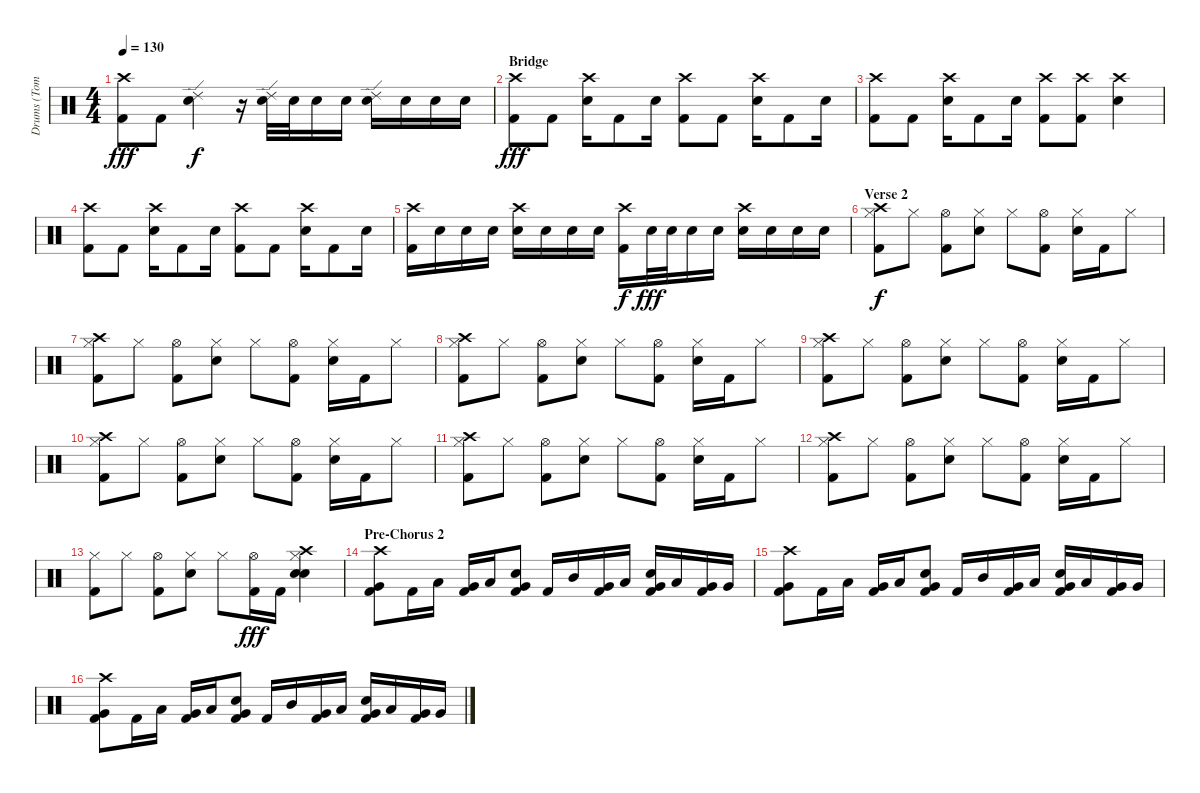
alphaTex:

\track ("Drums (Tommy Decker)" "Drums (Tom") {instrument percussion}
\staff {score}
\articulation defaults
\ts (4 4)
\tempo 130
\clef neutral
\ks c
("Crash high (hit)" "Kick (hit) 2").8{dy fff} "Kick (hit) 2".8 ("Ride (edge) 2" "Electric Snare (hit)").4{dy f} r.16 ("Ride (edge) 2" "Electric Snare (hit)").32 "Electric Snare (hit)".32 "Electric Snare (hit)".16 "Electric Snare (hit)".16 ("Ride (edge) 2" "Electric Snare (hit)").16 "Electric Snare (hit)".16 "Electric Snare (hit)".16 "Electric Snare (hit)".16 |
\section ("" "Bridge")
("Crash high (hit)" "Kick (hit) 2").8{dy fff} "Kick (hit) 2".8 ("Crash high (hit)" "Electric Snare (hit)").16 "Kick (hit) 2".8 "Electric Snare (hit)".16 ("Crash high (hit)" "Kick (hit) 2").8 "Kick (hit) 2".8 ("Crash high (hit)" "Electric Snare (hit)").16 "Kick (hit) 2".8 "Electric Snare (hit)".16 |
("Crash high (hit)" "Kick (hit) 2").8 "Kick (hit) 2".8 ("Crash high (hit)" "Electric Snare (hit)").16 "Kick (hit) 2".8 "Electric Snare (hit)".16 ("Crash high (hit)" "Kick (hit) 2").8 ("Crash high (hit)" "Kick (hit) 2").8 ("Crash high (hit)" "Electric Snare (hit)").4 |
("Crash high (hit)" "Kick (hit) 2").8 "Kick (hit) 2".8 ("Crash high (hit)" "Electric Snare (hit)").16 "Kick (hit) 2".8 "Electric Snare (hit)".16 ("Crash high (hit)" "Kick (hit) 2").8 "Kick (hit) 2".8 ("Crash high (hit)" "Electric Snare (hit)").16 "Kick (hit) 2".8 "Electric Snare (hit)".16 |
("Crash high (hit)" "Kick (hit) 2").16 "Electric Snare (hit)".16 "Electric Snare (hit)".16 "Electric Snare (hit)".16 ("Crash high (hit)" "Electric Snare (hit)").16 "Electric Snare (hit)".16 "Electric Snare (hit)".16 "Electric Snare (hit)".16 ("Crash high (hit)" "Kick (hit) 2").16{dy f} "Electric Snare (hit)".32{dy fff} "Electric Snare (hit)".32 "Electric Snare (hit)".16 "Electric Snare (hit)".16 ("Crash high (hit)" "Electric Snare (hit)").16 "Electric Snare (hit)".16 "Electric Snare (hit)".16 "Electric Snare (hit)".16 |
\section ("" "Verse 2")
("Hi-Hat (closed)" "Crash high (hit)" "Kick (hit) 2").8{dy f} "Hi-Hat (closed)".8 ("Hi-Hat (open)" "Kick (hit) 2").8 ("Hi-Hat (closed)" "Electric Snare (hit)").8 "Hi-Hat (closed)".8 ("Hi-Hat (open)" "Kick (hit) 2").8 ("Hi-Hat (closed)" "Electric Snare (hit)").16 "Kick (hit) 2".16 "Hi-Hat (closed)".8 |
("Hi-Hat (closed)" "Crash high (hit)" "Kick (hit) 2").8 "Hi-Hat (closed)".8 ("Hi-Hat (open)" "Kick (hit) 2").8 ("Hi-Hat (closed)" "Electric Snare (hit)").8 "Hi-Hat (closed)".8 ("Hi-Hat (open)" "Kick (hit) 2").8 ("Hi-Hat (closed)" "Electric Snare (hit)").16 "Kick (hit) 2".16 "Hi-Hat (closed)".8 |
("Hi-Hat (closed)" "Crash high (hit)" "Kick (hit) 2").8 "Hi-Hat (closed)".8 ("Hi-Hat (open)" "Kick (hit) 2").8 ("Hi-Hat (closed)" "Electric Snare (hit)").8 "Hi-Hat (closed)".8 ("Hi-Hat (open)" "Kick (hit) 2").8 ("Hi-Hat (closed)" "Electric Snare (hit)").16 "Kick (hit) 2".16 "Hi-Hat (closed)".8 |
("Hi-Hat (closed)" "Crash high (hit)" "Kick (hit) 2").8 "Hi-Hat (closed)".8 ("Hi-Hat (open)" "Kick (hit) 2").8 ("Hi-Hat (closed)" "Electric Snare (hit)").8 "Hi-Hat (closed)".8 ("Hi-Hat (open)" "Kick (hit) 2").8 ("Hi-Hat (closed)" "Electric Snare (hit)").16 "Kick (hit) 2".16 "Hi-Hat (closed)".8 |
("Hi-Hat (closed)" "Crash high (hit)" "Kick (hit) 2").8 "Hi-Hat (closed)".8 ("Hi-Hat (open)" "Kick (hit) 2").8 ("Hi-Hat (closed)" "Electric Snare (hit)").8 "Hi-Hat (closed)".8 ("Hi-Hat (open)" "Kick (hit) 2").8 ("Hi-Hat (closed)" "Electric Snare (hit)").16 "Kick (hit) 2".16 "Hi-Hat (closed)".8 |
("Hi-Hat (closed)" "Crash high (hit)" "Kick (hit) 2").8 "Hi-Hat (closed)".8 ("Hi-Hat (open)" "Kick (hit) 2").8 ("Hi-Hat (closed)" "Electric Snare (hit)").8 "Hi-Hat (closed)".8 ("Hi-Hat (open)" "Kick (hit) 2").8 ("Hi-Hat (closed)" "Electric Snare (hit)").16 "Kick (hit) 2".16 "Hi-Hat (closed)".8 |
("Hi-Hat (closed)" "Crash high (hit)" "Kick (hit) 2").8 "Hi-Hat (closed)".8 ("Hi-Hat (open)" "Kick (hit) 2").8 ("Hi-Hat (closed)" "Electric Snare (hit)").8 "Hi-Hat (closed)".8 ("Hi-Hat (open)" "Kick (hit) 2").8 ("Hi-Hat (closed)" "Electric Snare (hit)").16 "Kick (hit) 2".16 "Hi-Hat (closed)".8 |
("Hi-Hat (closed)" "Kick (hit) 2").8 "Hi-Hat (closed)".8 ("Hi-Hat (open)" "Kick (hit) 2").8 ("Hi-Hat (closed)" "Electric Snare (hit)").8 "Hi-Hat (closed)".8 ("Hi-Hat (open)" "Kick (hit) 2").16{dy fff} "Kick (hit) 2".16 ("Hi-Hat (closed)" "Crash high (hit)" "Snare (hit) 2" "Electric Snare (hit)").4 |
\section ("" "Pre-Chorus 2")
("Crash high (hit)" "Very Low Tom (hit)" "Kick (hit) 2").8 "Kick (hit) 2".16 "Low Tom (hit)".16 ("Very Low Tom (hit)" "Kick (hit) 2").16 "Low Tom (hit)".16 ("Electric Snare (hit)" "Very Low Tom (hit)" "Kick (hit) 2").8 "Kick (hit) 2".16 "Mid Tom (hit)".16 ("Very Low Tom (hit)" "Kick (hit) 2").16 "Low Tom (hit)".16 ("Electric Snare (hit)" "Very Low Tom (hit)" "Kick (hit) 2").16 "Low Tom (hit)".16 ("Very Low Tom (hit)" "Kick (hit) 2").16 "Very Low Tom (hit)".16 |
("Crash high (hit)" "Very Low Tom (hit)" "Kick (hit) 2").8 "Kick (hit) 2".16 "Low Tom (hit)".16 ("Very Low Tom (hit)" "Kick (hit) 2").16 "Low Tom (hit)".16 ("Electric Snare (hit)" "Very Low Tom (hit)" "Kick (hit) 2").8 "Kick (hit) 2".16 "Mid Tom (hit)".16 ("Very Low Tom (hit)" "Kick (hit) 2").16 "Low Tom (hit)".16 ("Electric Snare (hit)" "Very Low Tom (hit)" "Kick (hit) 2").16 "Low Tom (hit)".16 ("Very Low Tom (hit)" "Kick (hit) 2").16 "Very Low Tom (hit)".16 |
("Crash high (hit)" "Very Low Tom (hit)" "Kick (hit) 2").8 "Kick (hit) 2".16 "Low Tom (hit)".16 ("Very Low Tom (hit)" "Kick (hit) 2").16 "Low Tom (hit)".16 ("Electric Snare (hit)" "Very Low Tom (hit)" "Kick (hit) 2").8 "Kick (hit) 2".16 "Mid Tom (hit)".16 ("Very Low Tom (hit)" "Kick (hit) 2").16 "Low Tom (hit)".16 ("Electric Snare (hit)" "Very Low Tom (hit)" "Kick (hit) 2").16 "Low Tom (hit)".16 ("Very Low Tom (hit)" "Kick (hit) 2").16 "Very Low Tom (hit)".16
